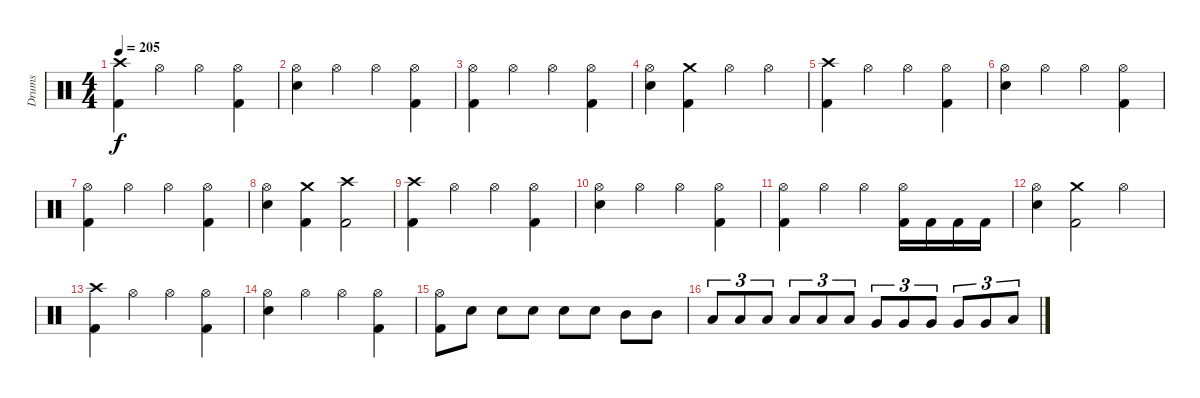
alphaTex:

\track ("Drums" "Drums") {instrument percussion bank 169}
\staff {score}
\articulation defaults
\ts (4 4)
\tempo 205
\clef neutral
\ks c
("Crash high (hit)" "Kick (hit) 2").4{dy f} "Hi-Hat (open)".4 "Hi-Hat (open)".4 ("Hi-Hat (open)" "Kick (hit) 2").4 |
("Hi-Hat (open)" "Snare (hit) 2").4 "Hi-Hat (open)".4 "Hi-Hat (open)".4 ("Hi-Hat (open)" "Kick (hit) 2").4 |
("Hi-Hat (open)" "Kick (hit) 2").4 "Hi-Hat (open)".4 "Hi-Hat (open)".4 ("Hi-Hat (open)" "Kick (hit) 2").4 |
("Hi-Hat (open)" "Snare (hit) 2").4 ("Crash medium (hit)" "Kick (hit) 2").4 "Hi-Hat (open)".4 "Hi-Hat (open)".4 |
("Crash high (hit)" "Kick (hit) 2").4 "Hi-Hat (open)".4 "Hi-Hat (open)".4 ("Hi-Hat (open)" "Kick (hit) 2").4 |
("Hi-Hat (open)" "Snare (hit) 2").4 "Hi-Hat (open)".4 "Hi-Hat (open)".4 ("Hi-Hat (open)" "Kick (hit) 2").4 |
("Hi-Hat (open)" "Kick (hit) 2").4 "Hi-Hat (open)".4 "Hi-Hat (open)".4 ("Hi-Hat (open)" "Kick (hit) 2").4 |
("Hi-Hat (open)" "Snare (hit) 2").4 ("Crash medium (hit)" "Kick (hit) 2").4 ("Crash high (hit)" "Kick (hit) 2").2 |
("Crash high (hit)" "Kick (hit) 2").4 "Hi-Hat (open)".4 "Hi-Hat (open)".4 ("Hi-Hat (open)" "Kick (hit) 2").4 |
("Hi-Hat (open)" "Snare (hit) 2").4 "Hi-Hat (open)".4 "Hi-Hat (open)".4 ("Hi-Hat (open)" "Kick (hit) 2").4 |
("Hi-Hat (open)" "Kick (hit) 2").4 "Hi-Hat (open)".4 "Hi-Hat (open)".4 ("Hi-Hat (open)" "Kick (hit) 2").16 "Kick (hit) 2".16 "Kick (hit) 2".16 "Kick (hit) 2".16 |
("Hi-Hat (open)" "Snare (hit) 2").4 ("Crash medium (hit)" "Kick (hit) 2").2 "Hi-Hat (open)".4 |
("Crash high (hit)" "Kick (hit) 2").4 "Hi-Hat (open)".4 "Hi-Hat (open)".4 ("Hi-Hat (open)" "Kick (hit) 2").4 |
("Hi-Hat (open)" "Snare (hit) 2").4 "Hi-Hat (open)".4 "Hi-Hat (open)".4 ("Hi-Hat (open)" "Kick (hit) 2").4 |
("Hi-Hat (open)" "Kick (hit) 2").8 "Snare (hit) 2".8 "Snare (hit) 2".8 "Snare (hit) 2".8 "Snare (hit) 2".8 "Snare (hit) 2".8 "Mid Tom (hit)".8 "Mid Tom (hit)".8 |
"Low Tom (hit)".8{tu (3 2)} "Low Tom (hit)".8{tu (3 2)} "Low Tom (hit)".8{tu (3 2)} "Low Tom (hit)".8{tu (3 2)} "Low Tom (hit)".8{tu (3 2)} "Low Tom (hit)".8{tu (3 2)} "Very Low Tom (hit)".8{tu (3 2)} "Very Low Tom (hit)".8{tu (3 2)} "Very Low Tom (hit)".8{tu (3 2)} "Very Low Tom (hit)".8{tu (3 2)} "Very Low Tom (hit)".8{tu (3 2)} "Low Floor Tom (hit)".8{tu (3 2)}
